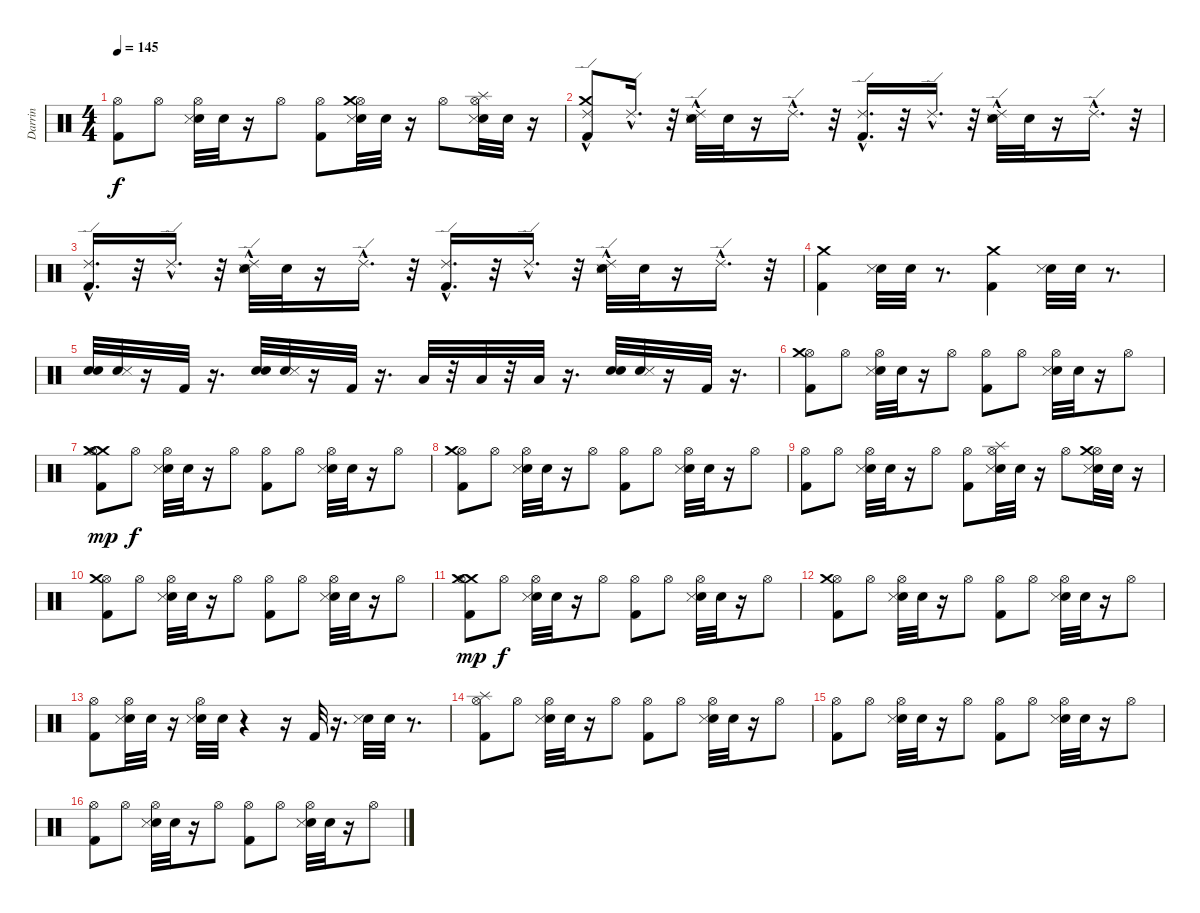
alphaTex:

\track ("Darrin" "Darrin") {instrument percussion}
\staff {score}
\articulation defaults
\ts (4 4)
\tempo 145
\clef neutral
\ks c
("Kick (hit) 2" "Hi-Hat (open)").8{dy f} "Hi-Hat (open)".8 ("Snare (hit) 2" "Snare (side stick) 3" "Hi-Hat (open)").32 "Snare (hit) 2".32 r.16 "Hi-Hat (open)".8 ("Kick (hit) 2" "Hi-Hat (open)").8 ("Hi-Hat (open)" "Snare (hit) 2" "Snare (side stick) 3" "Crash medium (hit)").32 "Snare (hit) 2".32 r.16 "Hi-Hat (open)".8 ("Hi-Hat (open)" "Snare (hit) 2" "Snare (side stick) 3" "Splash (hit)").32 "Snare (hit) 2".32 r.16 |
("Kick (hit) 2" "Ride (edge) 2"{hac} "Crash medium (hit)").8 "Ride (edge) 2"{hac}.16{d} r.32 ("Snare (hit) 2" "Snare (side stick) 3" "Ride (edge) 2"{hac}).32 "Snare (hit) 2".32 r.16 "Ride (edge) 2"{hac}.16{d} r.32 ("Kick (hit) 2" "Ride (edge) 2"{hac}).16{d} r.32 "Ride (edge) 2"{hac}.16{d} r.32 ("Snare (hit) 2" "Snare (side stick) 3" "Ride (edge) 2"{hac}).32 "Snare (hit) 2".32 r.16 "Ride (edge) 2"{hac}.16{d} r.32 |
("Kick (hit) 2" "Ride (edge) 2"{hac}).16{d} r.32 "Ride (edge) 2"{hac}.16{d} r.32 ("Ride (edge) 2"{hac} "Snare (hit) 2" "Snare (side stick) 3").32 "Snare (hit) 2".32 r.16 "Ride (edge) 2"{hac}.16{d} r.32 ("Kick (hit) 2" "Ride (edge) 2"{hac}).16{d} r.32 "Ride (edge) 2"{hac}.16{d} r.32 ("Snare (hit) 2" "Snare (side stick) 3" "Ride (edge) 2"{hac}).32 "Snare (hit) 2".32 r.16 "Ride (edge) 2"{hac}.16{d} r.32 |
("Kick (hit) 2" "Crash medium (hit)").4 ("Snare (hit) 2" "Snare (side stick) 3").32 "Snare (hit) 2".32 r.8{d} ("Kick (hit) 2" "Crash medium (hit)").4 ("Snare (hit) 2" "Snare (side stick) 3").32 "Snare (hit) 2".32 r.8{d} |
("Snare (hit) 2" "Snare (hit) 2").32{volume 16} ("Snare (hit) 2" "Snare (side stick) 3").32 r.16 "Kick (hit) 2".32 r.16{d} ("Snare (hit) 2" "Snare (hit) 2").32 ("Snare (hit) 2" "Snare (side stick) 3").32 r.16 "Kick (hit) 2".32 r.16{d} "Low Floor Tom (hit)".32 r.32 "Low Floor Tom (hit)".32 r.32 "Low Floor Tom (hit)".32 r.16{d} ("Snare (hit) 2" "Snare (hit) 2").32 ("Snare (hit) 2" "Snare (side stick) 3").32 r.16 "Kick (hit) 2".32 r.16{d} |
("Kick (hit) 2" "Hi-Hat (open)" "Crash medium (hit)").8 "Hi-Hat (open)".8 ("Snare (hit) 2" "Snare (side stick) 3" "Hi-Hat (open)").32 "Snare (hit) 2".32 r.16 "Hi-Hat (open)".8 ("Kick (hit) 2" "Hi-Hat (open)").8 "Hi-Hat (open)".8 ("Snare (hit) 2" "Snare (side stick) 3" "Hi-Hat (open)").32 "Snare (hit) 2".32 r.16 "Hi-Hat (open)".8 |
("Crash medium (hit)" "Crash medium (hit)" "Kick (hit) 2" "Hi-Hat (open)").8{dy mp} "Hi-Hat (open)".8{dy f} ("Snare (hit) 2" "Snare (side stick) 3" "Hi-Hat (open)").32 "Snare (hit) 2".32 r.16 "Hi-Hat (open)".8 ("Kick (hit) 2" "Hi-Hat (open)").8 "Hi-Hat (open)".8 ("Snare (hit) 2" "Snare (side stick) 3" "Hi-Hat (open)").32 "Snare (hit) 2".32 r.16 "Hi-Hat (open)".8 |
("Kick (hit) 2" "Hi-Hat (open)" "Crash medium (hit)").8 "Hi-Hat (open)".8 ("Snare (hit) 2" "Snare (side stick) 3" "Hi-Hat (open)").32 "Snare (hit) 2".32 r.16 "Hi-Hat (open)".8 ("Kick (hit) 2" "Hi-Hat (open)").8 "Hi-Hat (open)".8 ("Snare (hit) 2" "Snare (side stick) 3" "Hi-Hat (open)").32 "Snare (hit) 2".32 r.16 "Hi-Hat (open)".8 |
("Kick (hit) 2" "Hi-Hat (open)").8 "Hi-Hat (open)".8 ("Snare (hit) 2" "Snare (side stick) 3" "Hi-Hat (open)").32 "Snare (hit) 2".32 r.16 "Hi-Hat (open)".8 ("Kick (hit) 2" "Hi-Hat (open)").8 ("Hi-Hat (open)" "Snare (hit) 2" "Snare (side stick) 3" "Splash (hit)").32 "Snare (hit) 2".32 r.16 "Hi-Hat (open)".8 ("Hi-Hat (open)" "Snare (hit) 2" "Snare (side stick) 3" "Crash medium (hit)").32 "Snare (hit) 2".32 r.16 |
("Kick (hit) 2" "Hi-Hat (open)" "Crash medium (hit)").8 "Hi-Hat (open)".8 ("Snare (hit) 2" "Snare (side stick) 3" "Hi-Hat (open)").32 "Snare (hit) 2".32 r.16 "Hi-Hat (open)".8 ("Kick (hit) 2" "Hi-Hat (open)").8 "Hi-Hat (open)".8 ("Snare (hit) 2" "Snare (side stick) 3" "Hi-Hat (open)").32 "Snare (hit) 2".32 r.16 "Hi-Hat (open)".8 |
("Crash medium (hit)" "Crash medium (hit)" "Kick (hit) 2" "Hi-Hat (open)").8{dy mp} "Hi-Hat (open)".8{dy f} ("Snare (hit) 2" "Snare (side stick) 3" "Hi-Hat (open)").32 "Snare (hit) 2".32 r.16 "Hi-Hat (open)".8 ("Kick (hit) 2" "Hi-Hat (open)").8 "Hi-Hat (open)".8 ("Snare (hit) 2" "Snare (side stick) 3" "Hi-Hat (open)").32 "Snare (hit) 2".32 r.16 "Hi-Hat (open)".8 |
("Kick (hit) 2" "Hi-Hat (open)" "Crash medium (hit)").8 "Hi-Hat (open)".8 ("Snare (hit) 2" "Snare (side stick) 3" "Hi-Hat (open)").32 "Snare (hit) 2".32 r.16 "Hi-Hat (open)".8 ("Kick (hit) 2" "Hi-Hat (open)").8 "Hi-Hat (open)".8 ("Snare (hit) 2" "Snare (side stick) 3" "Hi-Hat (open)").32 "Snare (hit) 2".32 r.16 "Hi-Hat (open)".8 |
("Hi-Hat (open)" "Kick (hit) 2").8 ("Hi-Hat (open)" "Snare (hit) 2" "Snare (side stick) 3").32 "Snare (hit) 2".32 r.16 ("Hi-Hat (open)" "Snare (hit) 2" "Snare (side stick) 3").32 "Snare (hit) 2".32 r.4 r.16 "Kick (hit) 2".32 r.16{d} ("Snare (hit) 2" "Snare (side stick) 3").32 "Snare (hit) 2".32 r.8{d} |
("Kick (hit) 2" "Hi-Hat (open)" "Splash (hit)").8 "Hi-Hat (open)".8 ("Snare (hit) 2" "Snare (side stick) 3" "Hi-Hat (open)").32 "Snare (hit) 2".32 r.16 "Hi-Hat (open)".8 ("Kick (hit) 2" "Hi-Hat (open)").8 "Hi-Hat (open)".8 ("Snare (hit) 2" "Snare (side stick) 3" "Hi-Hat (open)").32 "Snare (hit) 2".32 r.16 "Hi-Hat (open)".8 |
("Kick (hit) 2" "Hi-Hat (open)").8 "Hi-Hat (open)".8 ("Snare (hit) 2" "Snare (side stick) 3" "Hi-Hat (open)").32 "Snare (hit) 2".32 r.16 "Hi-Hat (open)".8 ("Kick (hit) 2" "Hi-Hat (open)").8 "Hi-Hat (open)".8 ("Snare (hit) 2" "Snare (side stick) 3" "Hi-Hat (open)").32 "Snare (hit) 2".32 r.16 "Hi-Hat (open)".8 |
("Kick (hit) 2" "Hi-Hat (open)").8 "Hi-Hat (open)".8 ("Snare (hit) 2" "Snare (side stick) 3" "Hi-Hat (open)").32 "Snare (hit) 2".32 r.16 "Hi-Hat (open)".8 ("Kick (hit) 2" "Hi-Hat (open)").8 "Hi-Hat (open)".8 ("Snare (hit) 2" "Snare (side stick) 3" "Hi-Hat (open)").32 "Snare (hit) 2".32 r.16 "Hi-Hat (open)".8
